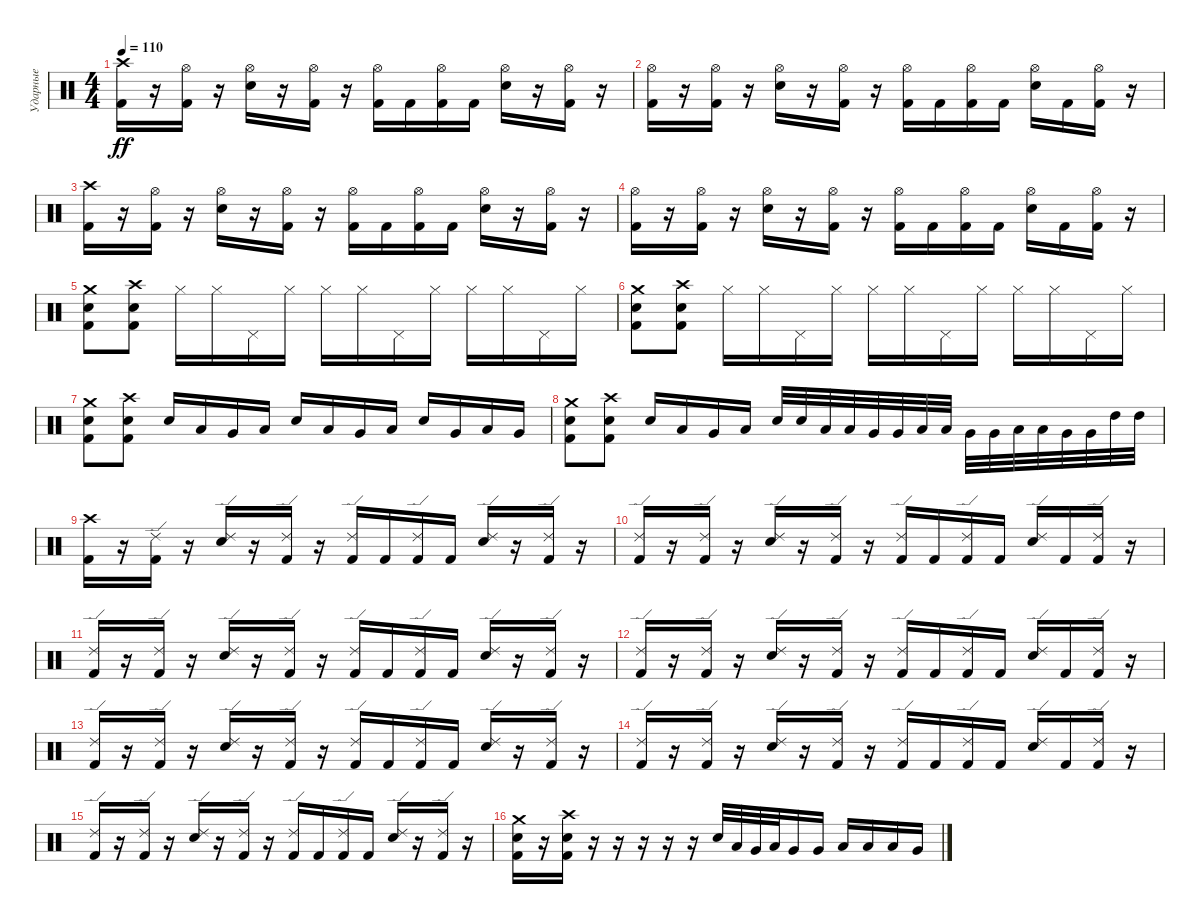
\track ("Ударные" "Ударные") {instrument percussion}
\staff {score}
\articulation defaults
\ts (4 4)
\tempo 110
\clef neutral
\ks c
("Crash high (hit)" "Kick (hit) 2").16{dy ff} r.16 ("Hi-Hat (open)" "Kick (hit) 2").16 r.16 ("Hi-Hat (open)" "Snare (hit) 2").16 r.16 ("Hi-Hat (open)" "Kick (hit) 2").16 r.16 ("Hi-Hat (open)" "Kick (hit) 2").16 "Kick (hit) 2".16 ("Hi-Hat (open)" "Kick (hit) 2").16 "Kick (hit) 2".16 ("Hi-Hat (open)" "Snare (hit) 2").16 r.16 ("Hi-Hat (open)" "Kick (hit) 2").16 r.16 |
("Hi-Hat (open)" "Kick (hit) 2").16 r.16 ("Hi-Hat (open)" "Kick (hit) 2").16 r.16 ("Hi-Hat (open)" "Snare (hit) 2").16 r.16 ("Hi-Hat (open)" "Kick (hit) 2").16 r.16 ("Hi-Hat (open)" "Kick (hit) 2").16 "Kick (hit) 2".16 ("Hi-Hat (open)" "Kick (hit) 2").16 "Kick (hit) 2".16 ("Hi-Hat (open)" "Snare (hit) 2").16 "Kick (hit) 2".16 ("Hi-Hat (open)" "Kick (hit) 2").16 r.16 |
("Crash high (hit)" "Kick (hit) 2").16 r.16 ("Hi-Hat (open)" "Kick (hit) 2").16 r.16 ("Hi-Hat (open)" "Snare (hit) 2").16 r.16 ("Hi-Hat (open)" "Kick (hit) 2").16 r.16 ("Hi-Hat (open)" "Kick (hit) 2").16 "Kick (hit) 2".16 ("Hi-Hat (open)" "Kick (hit) 2").16 "Kick (hit) 2".16 ("Hi-Hat (open)" "Snare (hit) 2").16 r.16 ("Hi-Hat (open)" "Kick (hit) 2").16 r.16 |
("Hi-Hat (open)" "Kick (hit) 2").16 r.16 ("Hi-Hat (open)" "Kick (hit) 2").16 r.16 ("Hi-Hat (open)" "Snare (hit) 2").16 r.16 ("Hi-Hat (open)" "Kick (hit) 2").16 r.16 ("Hi-Hat (open)" "Kick (hit) 2").16 "Kick (hit) 2".16 ("Hi-Hat (open)" "Kick (hit) 2").16 "Kick (hit) 2".16 ("Hi-Hat (open)" "Snare (hit) 2").16 "Kick (hit) 2".16 ("Hi-Hat (open)" "Kick (hit) 2").16 r.16 |
("Crash medium (hit)" "Snare (hit) 2" "Kick (hit) 2").8 ("Crash high (hit)" "Snare (hit) 2" "Kick (hit) 2").8 "Hi-Hat (closed)".16 "Hi-Hat (closed)".16 "Pedal Hi-Hat (hit)".16 "Hi-Hat (closed)".16 "Hi-Hat (closed)".16 "Hi-Hat (closed)".16 "Pedal Hi-Hat (hit)".16 "Hi-Hat (closed)".16 "Hi-Hat (closed)".16 "Hi-Hat (closed)".16 "Pedal Hi-Hat (hit)".16 "Hi-Hat (closed)".16 |
("Crash medium (hit)" "Snare (hit) 2" "Kick (hit) 2").8 ("Crash high (hit)" "Snare (hit) 2" "Kick (hit) 2").8 "Hi-Hat (closed)".16 "Hi-Hat (closed)".16 "Pedal Hi-Hat (hit)".16 "Hi-Hat (closed)".16 "Hi-Hat (closed)".16 "Hi-Hat (closed)".16 "Pedal Hi-Hat (hit)".16 "Hi-Hat (closed)".16 "Hi-Hat (closed)".16 "Hi-Hat (closed)".16 "Pedal Hi-Hat (hit)".16 "Hi-Hat (closed)".16 |
("Crash medium (hit)" "Snare (hit) 2" "Kick (hit) 2").8 ("Crash high (hit)" "Snare (hit) 2" "Kick (hit) 2").8 "Snare (hit) 2".16 "Low Floor Tom (hit)".16 "Very Low Tom (hit)".16 "Low Tom (hit)".16 "Snare (hit) 2".16 "Low Floor Tom (hit)".16 "Very Low Tom (hit)".16 "Low Tom (hit)".16 "Snare (hit) 2".16 "Very Low Tom (hit)".16 "Low Tom (hit)".16 "Very Low Tom (hit)".16 |
("Crash medium (hit)" "Snare (hit) 2" "Kick (hit) 2").8 ("Crash high (hit)" "Snare (hit) 2" "Kick (hit) 2").8 "Snare (hit) 2".16 "Low Floor Tom (hit)".16 "Very Low Tom (hit)".16 "Low Tom (hit)".16 "Snare (hit) 2".32 "Snare (hit) 2".32 "Low Floor Tom (hit)".32 "Low Floor Tom (hit)".32 "Very Low Tom (hit)".32 "Very Low Tom (hit)".32 "Low Tom (hit)".32 "Low Tom (hit)".32 "Very Low Tom (hit)".32 "Very Low Tom (hit)".32 "Low Tom (hit)".32 "Low Tom (hit)".32 "Very Low Tom (hit)".32 "Very Low Tom (hit)".32 "High Tom (hit)".32 "High Tom (hit)".32 |
("Crash high (hit)" "Kick (hit) 2").16 r.16 ("Ride (edge) 2" "Kick (hit) 2").16 r.16 ("Ride (edge) 2" "Snare (hit) 2").16 r.16 ("Ride (edge) 2" "Kick (hit) 2").16 r.16 ("Ride (edge) 2" "Kick (hit) 2").16 "Kick (hit) 2".16 ("Ride (edge) 2" "Kick (hit) 2").16 "Kick (hit) 2".16 ("Ride (edge) 2" "Snare (hit) 2").16 r.16 ("Ride (edge) 2" "Kick (hit) 2").16 r.16 |
("Ride (edge) 2" "Kick (hit) 2").16 r.16 ("Ride (edge) 2" "Kick (hit) 2").16 r.16 ("Ride (edge) 2" "Snare (hit) 2").16 r.16 ("Ride (edge) 2" "Kick (hit) 2").16 r.16 ("Ride (edge) 2" "Kick (hit) 2").16 "Kick (hit) 2".16 ("Ride (edge) 2" "Kick (hit) 2").16 "Kick (hit) 2".16 ("Ride (edge) 2" "Snare (hit) 2").16 "Kick (hit) 2".16 ("Ride (edge) 2" "Kick (hit) 2").16 r.16 |
("Ride (edge) 2" "Kick (hit) 2").16 r.16 ("Ride (edge) 2" "Kick (hit) 2").16 r.16 ("Ride (edge) 2" "Snare (hit) 2").16 r.16 ("Ride (edge) 2" "Kick (hit) 2").16 r.16 ("Ride (edge) 2" "Kick (hit) 2").16 "Kick (hit) 2".16 ("Ride (edge) 2" "Kick (hit) 2").16 "Kick (hit) 2".16 ("Ride (edge) 2" "Snare (hit) 2").16 r.16 ("Ride (edge) 2" "Kick (hit) 2").16 r.16 |
("Ride (edge) 2" "Kick (hit) 2").16 r.16 ("Ride (edge) 2" "Kick (hit) 2").16 r.16 ("Ride (edge) 2" "Snare (hit) 2").16 r.16 ("Ride (edge) 2" "Kick (hit) 2").16 r.16 ("Ride (edge) 2" "Kick (hit) 2").16 "Kick (hit) 2".16 ("Ride (edge) 2" "Kick (hit) 2").16 "Kick (hit) 2".16 ("Ride (edge) 2" "Snare (hit) 2").16 "Kick (hit) 2".16 ("Ride (edge) 2" "Kick (hit) 2").16 r.16 |
("Ride (edge) 2" "Kick (hit) 2").16 r.16 ("Ride (edge) 2" "Kick (hit) 2").16 r.16 ("Ride (edge) 2" "Snare (hit) 2").16 r.16 ("Ride (edge) 2" "Kick (hit) 2").16 r.16 ("Ride (edge) 2" "Kick (hit) 2").16 "Kick (hit) 2".16 ("Ride (edge) 2" "Kick (hit) 2").16 "Kick (hit) 2".16 ("Ride (edge) 2" "Snare (hit) 2").16 r.16 ("Ride (edge) 2" "Kick (hit) 2").16 r.16 |
("Ride (edge) 2" "Kick (hit) 2").16 r.16 ("Ride (edge) 2" "Kick (hit) 2").16 r.16 ("Ride (edge) 2" "Snare (hit) 2").16 r.16 ("Ride (edge) 2" "Kick (hit) 2").16 r.16 ("Ride (edge) 2" "Kick (hit) 2").16 "Kick (hit) 2".16 ("Ride (edge) 2" "Kick (hit) 2").16 "Kick (hit) 2".16 ("Ride (edge) 2" "Snare (hit) 2").16 "Kick (hit) 2".16 ("Ride (edge) 2" "Kick (hit) 2").16 r.16 |
("Ride (edge) 2" "Kick (hit) 2").16 r.16 ("Ride (edge) 2" "Kick (hit) 2").16 r.16 ("Ride (edge) 2" "Snare (hit) 2").16 r.16 ("Ride (edge) 2" "Kick (hit) 2").16 r.16 ("Ride (edge) 2" "Kick (hit) 2").16 "Kick (hit) 2".16 ("Ride (edge) 2" "Kick (hit) 2").16 "Kick (hit) 2".16 ("Ride (edge) 2" "Snare (hit) 2").16 r.16 ("Ride (edge) 2" "Kick (hit) 2").16 r.16 |
("Crash medium (hit)" "Snare (hit) 2" "Kick (hit) 2").16 r.16 ("Crash high (hit)" "Snare (hit) 2" "Kick (hit) 2").16 r.16 r.16 r.16 r.16 r.16 "Snare (hit) 2".32 "Low Floor Tom (hit)".32 "Very Low Tom (hit)".32 "Low Floor Tom (hit)".32 "Very Low Tom (hit)".16 "Very Low Tom (hit)".16 "Low Floor Tom (hit)".16 "Low Floor Tom (hit)".16 "Low Floor Tom (hit)".16 "Very Low Tom (hit)".16
